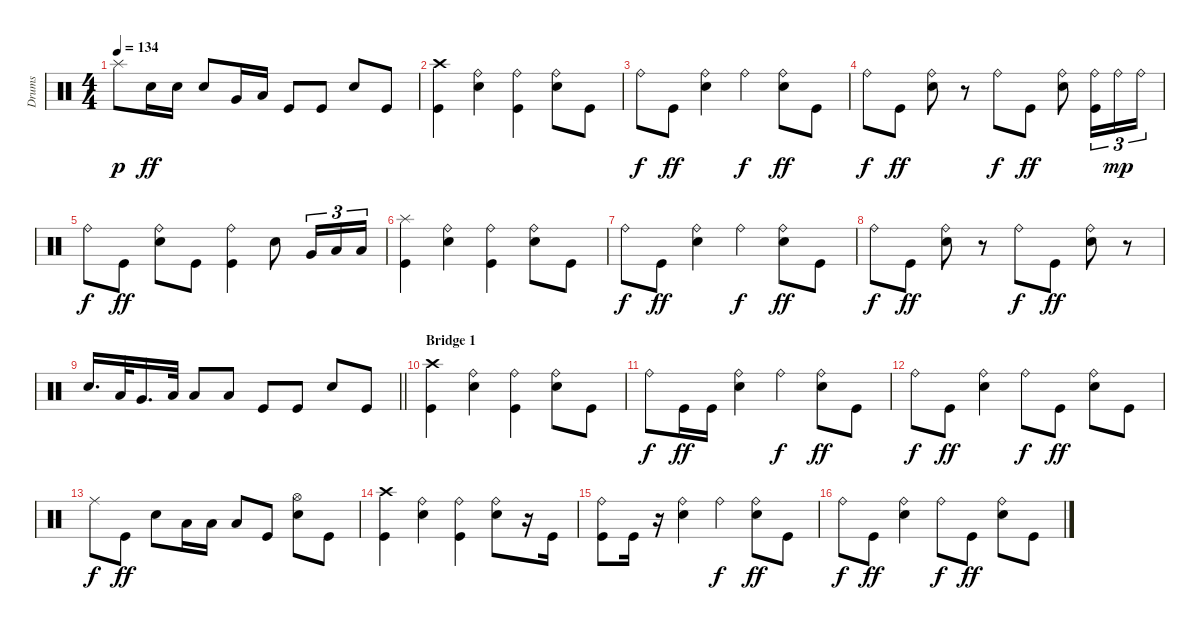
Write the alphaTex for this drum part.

\track ("Drums" "Drums") {instrument percussion}
\staff {score}
\articulation defaults
\ts (4 4)
\tempo 134
\clef neutral
\ks c "Splash (hit)".8{dy p} "Electric Snare (hit)".16{dy ff} "Electric Snare (hit)".16 "Electric Snare (hit)".8 "Very Low Tom (hit)".16 "Low Floor Tom (hit)".16 "Kick (hit)".8 "Kick (hit)".8 "Electric Snare (hit)".8 "Kick (hit)".8
|
("Crash high (hit)" "Kick (hit)").4 ("Ride (bell)" "Electric Snare (hit)").4 ("Ride (bell)" "Kick (hit)").4 ("Ride (bell)" "Electric Snare (hit)").8 "Kick (hit)".8 |
"Ride (bell)".8{dy f} "Kick (hit)".8{dy ff} ("Ride (bell)" "Electric Snare (hit)").4 "Ride (bell)".4{dy f} ("Ride (bell)" "Electric Snare (hit)").8{dy ff} "Kick (hit)".8 |
"Ride (bell)".8{dy f} "Kick (hit)".8{dy ff} ("Ride (bell)" "Electric Snare (hit)").8 r.8 "Ride (bell)".8{dy f} "Kick (hit)".8{dy ff} ("Ride (bell)" "Electric Snare (hit)").8 ("Ride (bell)" "Kick (hit)").16{tu (3 2)} "Ride (bell)".16{tu (3 2) dy mp} "Ride (bell)".16{tu (3 2)} |
"Ride (bell)".8{dy f} "Kick (hit)".8{dy ff} ("Ride (bell)" "Electric Snare (hit)").8 "Kick (hit)".8 ("Ride (bell)" "Kick (hit)").4 "Electric Snare (hit)".8 "Very Low Tom (hit)".16{tu (3 2)} "Low Floor Tom (hit)".16{tu (3 2)} "Low Floor Tom (hit)".16{tu (3 2)} |
("Splash (hit)" "Kick (hit)").4 ("Ride (bell)" "Electric Snare (hit)").4 ("Ride (bell)" "Kick (hit)").4 ("Ride (bell)" "Electric Snare (hit)").8 "Kick (hit)".8 |
"Ride (bell)".8{dy f} "Kick (hit)".8{dy ff} ("Ride (bell)" "Electric Snare (hit)").4 "Ride (bell)".4{dy f} ("Ride (bell)" "Electric Snare (hit)").8{dy ff} "Kick (hit)".8 |
"Ride (bell)".8{dy f} "Kick (hit)".8{dy ff} ("Ride (bell)" "Electric Snare (hit)").8 r.8 "Ride (bell)".8{dy f} "Kick (hit)".8{dy ff} ("Ride (bell)" "Electric Snare (hit)").8 r.8 |
\barLineRight lightlight "Electric Snare (hit)".16{d} "Low Floor Tom (hit)".32 "Very Low Tom (hit)".16{d} "Low Floor Tom (hit)".32 "Low Tom (hit)".8 "Low Floor Tom (hit)".8 "Kick (hit)".8 "Kick (hit)".8 "Electric Snare (hit)".8 "Kick (hit)".8
|
\section ("" "Bridge 1")
("Crash high (hit)" "Kick (hit)").4 ("Ride (bell)" "Electric Snare (hit)").4 ("Ride (bell)" "Kick (hit)").4 ("Ride (bell)" "Electric Snare (hit)").8 "Kick (hit)".8 |
"Ride (bell)".8{dy f} "Kick (hit)".16{dy ff} "Kick (hit)".16 ("Ride (bell)" "Electric Snare (hit)").4 "Ride (bell)".4{dy f} ("Ride (bell)" "Electric Snare (hit)").8{dy ff} "Kick (hit)".8 |
"Ride (bell)".8{dy f} "Kick (hit)".8{dy ff} ("Ride (bell)" "Electric Snare (hit)").4 "Ride (bell)".8{dy f} "Kick (hit)".8{dy ff} ("Ride (bell)" "Electric Snare (hit)").8 "Kick (hit)".8 |
"Ride (middle)".8{dy f} "Kick (hit)".8{dy ff} "Electric Snare (hit)".8 "Low Floor Tom (hit)".16 "Low Floor Tom (hit)".16 "Low Floor Tom (hit)".8 "Kick (hit)".8 ("Hi-Hat (open)" "Electric Snare (hit)").8 "Kick (hit)".8 |
("Crash high (hit)" "Kick (hit)").4 ("Ride (bell)" "Electric Snare (hit)").4 ("Ride (bell)" "Kick (hit)").4 ("Ride (bell)" "Electric Snare (hit)").8 r.16 "Kick (hit)".16 |
("Ride (bell)" "Kick (hit)").8 "Kick (hit)".16 r.16 ("Ride (bell)" "Electric Snare (hit)").4 "Ride (bell)".4{dy f} ("Ride (bell)" "Electric Snare (hit)").8{dy ff} "Kick (hit)".8 |
"Ride (bell)".8{dy f} "Kick (hit)".8{dy ff} ("Ride (bell)" "Electric Snare (hit)").4 "Ride (bell)".8{dy f} "Kick (hit)".8{dy ff} ("Ride (bell)" "Electric Snare (hit)").8 "Kick (hit)".8
